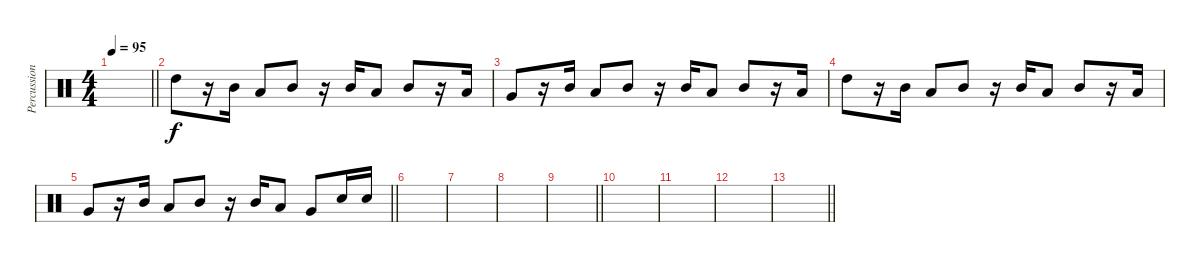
\track ("Percussions" "Percussion") {instrument percussion}
\staff {score}
\articulation defaults
\ts (4 4)
\tempo 95
\clef neutral
\barLineRight lightlight
\ks c
|
"High Tom (hit)".8 r.16 "Mid Tom (hit)".16 "Low Tom (hit)".8 "Mid Tom (hit)".8 r.16 "Mid Tom (hit)".16 "Low Tom (hit)".8 "Mid Tom (hit)".8 r.16 "Low Tom (hit)".16 |
"Very Low Tom (hit)".8 r.16 "Mid Tom (hit)".16 "Low Tom (hit)".8 "Mid Tom (hit)".8 r.16 "Mid Tom (hit)".16 "Low Tom (hit)".8 "Mid Tom (hit)".8 r.16 "Low Tom (hit)".16 |
"High Tom (hit)".8 r.16 "Mid Tom (hit)".16 "Low Tom (hit)".8 "Mid Tom (hit)".8 r.16 "Mid Tom (hit)".16 "Low Tom (hit)".8 "Mid Tom (hit)".8 r.16 "Low Tom (hit)".16 |
\barLineRight lightlight "Very Low Tom (hit)".8
r.16 "Mid Tom (hit)".16 "Low Tom (hit)".8 "Mid Tom (hit)".8 r.16 "Mid Tom (hit)".16 "Low Tom (hit)".8 "Very Low Tom (hit)".8 "Electric Snare (hit)".16{dy f} "Electric Snare (hit)".16 |
|
|
|
\barLineRight lightlight
|
|
|
|
\barLineRight lightlight
